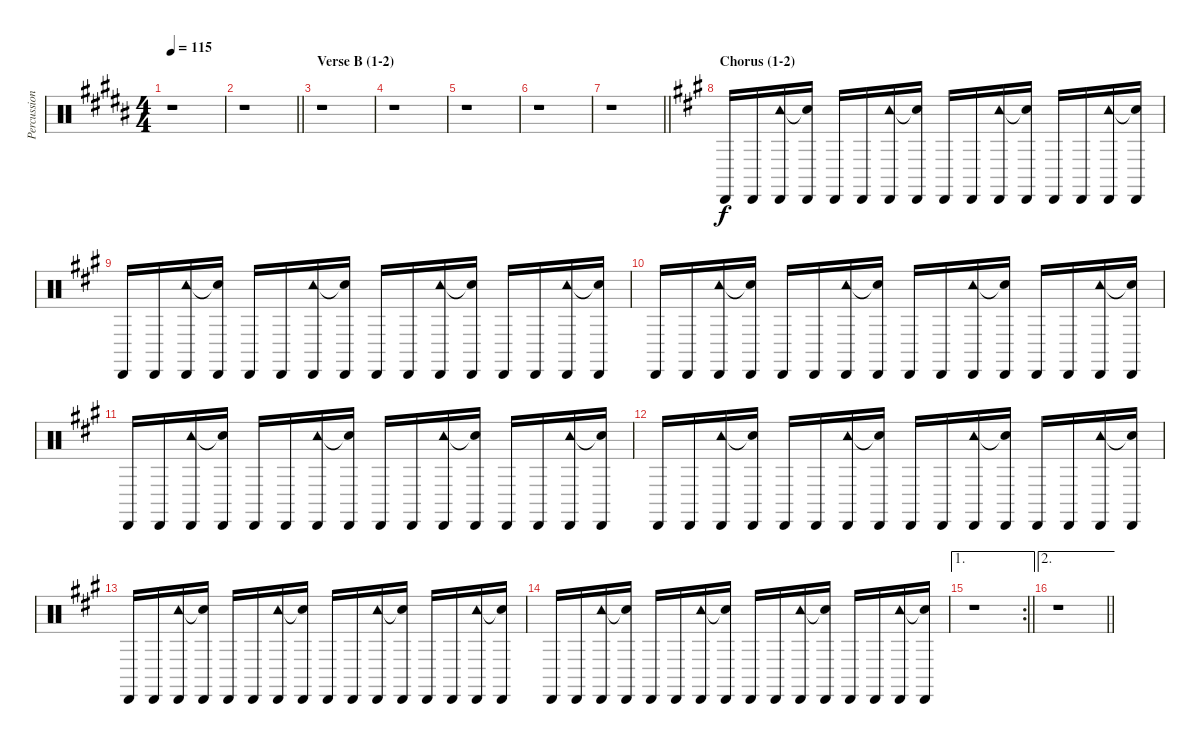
\track ("Percussion" "Percussion") {instrument percussion}
\staff {score}
\articulation defaults
\ts (4 4)
\tempo 115
\clef neutral
\ks b
r.1{dy f} |
\barLineRight lightlight
r.1 |
\section ("" "Verse B (1-2)")
r.1 |
r.1 |
r.1 |
r.1 |
\barLineRight lightlight
r.1 |
\section ("" "Chorus (1-2)")
\ks a "Cabasa (hit)".16 "Cabasa (hit)".16
("Cabasa (hit)" "Tambourine (hit)").16 ("Cabasa (hit)" "Snare (hit)"{t}).16 "Cabasa (hit)".16 "Cabasa (hit)".16 ("Cabasa (hit)" "Tambourine (hit)").16 ("Cabasa (hit)" "Snare (hit)"{t}).16 "Cabasa (hit)".16 "Cabasa (hit)".16 ("Cabasa (hit)" "Tambourine (hit)").16 ("Cabasa (hit)" "Snare (hit)"{t}).16 "Cabasa (hit)".16 "Cabasa (hit)".16 ("Cabasa (hit)" "Tambourine (hit)").16 ("Cabasa (hit)" "Snare (hit)"{t}).16 |
"Cabasa (hit)".16 "Cabasa (hit)".16 ("Cabasa (hit)" "Tambourine (hit)").16 ("Cabasa (hit)" "Snare (hit)"{t}).16 "Cabasa (hit)".16 "Cabasa (hit)".16 ("Cabasa (hit)" "Tambourine (hit)").16 ("Cabasa (hit)" "Snare (hit)"{t}).16 "Cabasa (hit)".16 "Cabasa (hit)".16 ("Cabasa (hit)" "Tambourine (hit)").16 ("Cabasa (hit)" "Snare (hit)"{t}).16 "Cabasa (hit)".16 "Cabasa (hit)".16 ("Cabasa (hit)" "Tambourine (hit)").16 ("Cabasa (hit)" "Snare (hit)"{t}).16 |
"Cabasa (hit)".16 "Cabasa (hit)".16 ("Cabasa (hit)" "Tambourine (hit)").16 ("Cabasa (hit)" "Snare (hit)"{t}).16 "Cabasa (hit)".16 "Cabasa (hit)".16 ("Cabasa (hit)" "Tambourine (hit)").16 ("Cabasa (hit)" "Snare (hit)"{t}).16 "Cabasa (hit)".16 "Cabasa (hit)".16 ("Cabasa (hit)" "Tambourine (hit)").16 ("Cabasa (hit)" "Snare (hit)"{t}).16 "Cabasa (hit)".16 "Cabasa (hit)".16 ("Cabasa (hit)" "Tambourine (hit)").16 ("Cabasa (hit)" "Snare (hit)"{t}).16 |
"Cabasa (hit)".16 "Cabasa (hit)".16 ("Cabasa (hit)" "Tambourine (hit)").16 ("Cabasa (hit)" "Snare (hit)"{t}).16 "Cabasa (hit)".16 "Cabasa (hit)".16 ("Cabasa (hit)" "Tambourine (hit)").16 ("Cabasa (hit)" "Snare (hit)"{t}).16 "Cabasa (hit)".16 "Cabasa (hit)".16 ("Cabasa (hit)" "Tambourine (hit)").16 ("Cabasa (hit)" "Snare (hit)"{t}).16 "Cabasa (hit)".16 "Cabasa (hit)".16 ("Cabasa (hit)" "Tambourine (hit)").16 ("Cabasa (hit)" "Snare (hit)"{t}).16 |
"Cabasa (hit)".16 "Cabasa (hit)".16 ("Cabasa (hit)" "Tambourine (hit)").16 ("Cabasa (hit)" "Snare (hit)"{t}).16 "Cabasa (hit)".16 "Cabasa (hit)".16 ("Cabasa (hit)" "Tambourine (hit)").16 ("Cabasa (hit)" "Snare (hit)"{t}).16 "Cabasa (hit)".16 "Cabasa (hit)".16 ("Cabasa (hit)" "Tambourine (hit)").16 ("Cabasa (hit)" "Snare (hit)"{t}).16 "Cabasa (hit)".16 "Cabasa (hit)".16 ("Cabasa (hit)" "Tambourine (hit)").16 ("Cabasa (hit)" "Snare (hit)"{t}).16 |
"Cabasa (hit)".16 "Cabasa (hit)".16 ("Cabasa (hit)" "Tambourine (hit)").16 ("Cabasa (hit)" "Snare (hit)"{t}).16 "Cabasa (hit)".16 "Cabasa (hit)".16 ("Cabasa (hit)" "Tambourine (hit)").16 ("Cabasa (hit)" "Snare (hit)"{t}).16 "Cabasa (hit)".16 "Cabasa (hit)".16 ("Cabasa (hit)" "Tambourine (hit)").16 ("Cabasa (hit)" "Snare (hit)"{t}).16 "Cabasa (hit)".16 "Cabasa (hit)".16 ("Cabasa (hit)" "Tambourine (hit)").16 ("Cabasa (hit)" "Snare (hit)"{t}).16 |
"Cabasa (hit)".16 "Cabasa (hit)".16 ("Cabasa (hit)" "Tambourine (hit)").16 ("Cabasa (hit)" "Snare (hit)"{t}).16 "Cabasa (hit)".16 "Cabasa (hit)".16 ("Cabasa (hit)" "Tambourine (hit)").16 ("Cabasa (hit)" "Snare (hit)"{t}).16 "Cabasa (hit)".16 "Cabasa (hit)".16 ("Cabasa (hit)" "Tambourine (hit)").16 ("Cabasa (hit)" "Snare (hit)"{t}).16 "Cabasa (hit)".16 "Cabasa (hit)".16 ("Cabasa (hit)" "Tambourine (hit)").16 ("Cabasa (hit)" "Snare (hit)"{t}).16 |
\ae 1
\rc 2
\barLineRight lightlight
r.1 |
\ae 2
\barLineRight lightlight
r.1
